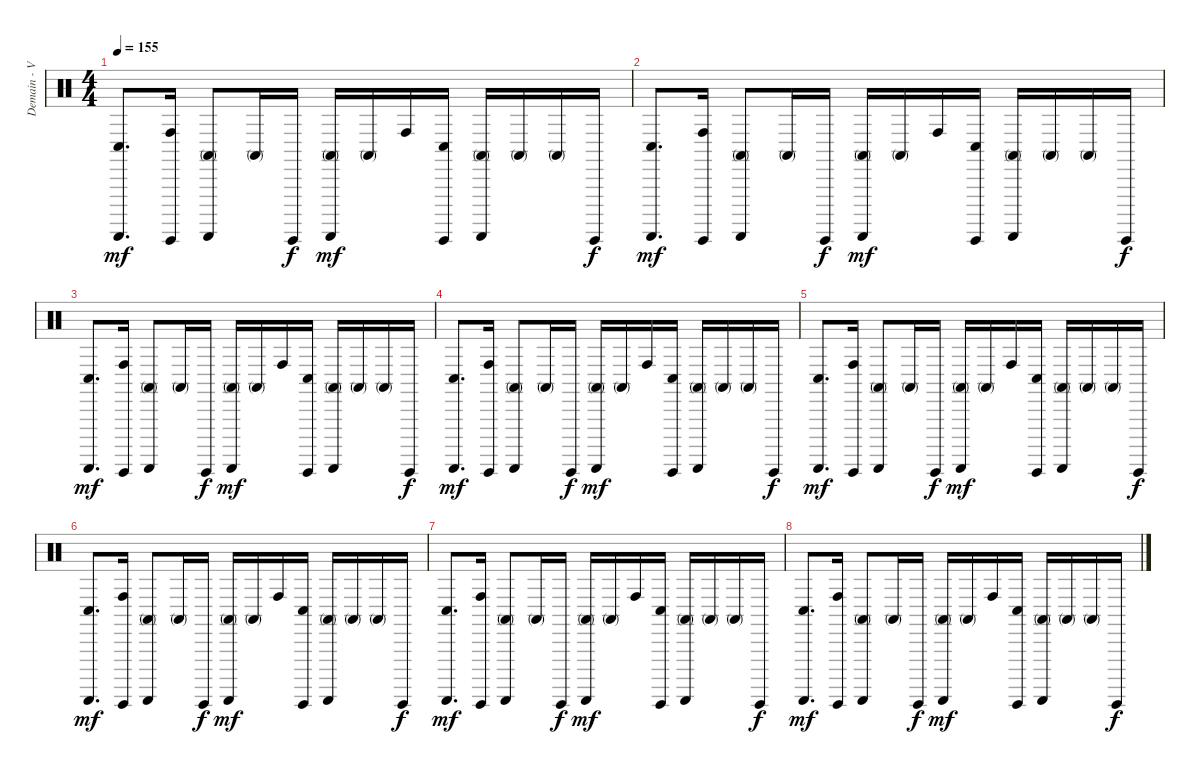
\track ("Demain - Various Perc." "Demain - V") {instrument percussion}
\staff {score}
\articulation defaults
\ts (4 4)
\tempo 155
\clef neutral
\ks c
("Conga low (hit)" "Guiro (scrap-return)").8{d dy mf} ("Conga high (hit)" "Guiro (hit)").16 ("Conga high (mute)" "Guiro (scrap-return)").8 "Conga high (mute)".16 "Guiro (hit)".16{dy f} ("Conga high (mute)" "Guiro (scrap-return)").16{dy mf} "Conga high (mute)".16 "Conga high (hit)".16 ("Conga low (hit)" "Guiro (hit)").16 ("Conga high (mute)" "Guiro (scrap-return)").16 "Conga high (mute)".16 "Conga high (mute)".16 "Guiro (hit)".16{dy f} |
("Conga low (hit)" "Guiro (scrap-return)").8{d dy mf} ("Conga high (hit)" "Guiro (hit)").16 ("Conga high (mute)" "Guiro (scrap-return)").8 "Conga high (mute)".16 "Guiro (hit)".16{dy f} ("Conga high (mute)" "Guiro (scrap-return)").16{dy mf} "Conga high (mute)".16 "Conga high (hit)".16 ("Conga low (hit)" "Guiro (hit)").16 ("Conga high (mute)" "Guiro (scrap-return)").16 "Conga high (mute)".16 "Conga high (mute)".16 "Guiro (hit)".16{dy f} |
("Conga low (hit)" "Guiro (scrap-return)").8{d dy mf} ("Conga high (hit)" "Guiro (hit)").16 ("Conga high (mute)" "Guiro (scrap-return)").8 "Conga high (mute)".16 "Guiro (hit)".16{dy f} ("Conga high (mute)" "Guiro (scrap-return)").16{dy mf} "Conga high (mute)".16 "Conga high (hit)".16 ("Conga low (hit)" "Guiro (hit)").16 ("Conga high (mute)" "Guiro (scrap-return)").16 "Conga high (mute)".16 "Conga high (mute)".16 "Guiro (hit)".16{dy f} |
("Conga low (hit)" "Guiro (scrap-return)").8{d dy mf} ("Conga high (hit)" "Guiro (hit)").16 ("Conga high (mute)" "Guiro (scrap-return)").8 "Conga high (mute)".16 "Guiro (hit)".16{dy f} ("Conga high (mute)" "Guiro (scrap-return)").16{dy mf} "Conga high (mute)".16 "Conga high (hit)".16 ("Conga low (hit)" "Guiro (hit)").16 ("Conga high (mute)" "Guiro (scrap-return)").16 "Conga high (mute)".16 "Conga high (mute)".16 "Guiro (hit)".16{dy f} |
("Conga low (hit)" "Guiro (scrap-return)").8{d dy mf} ("Conga high (hit)" "Guiro (hit)").16 ("Conga high (mute)" "Guiro (scrap-return)").8 "Conga high (mute)".16 "Guiro (hit)".16{dy f} ("Conga high (mute)" "Guiro (scrap-return)").16{dy mf} "Conga high (mute)".16 "Conga high (hit)".16 ("Conga low (hit)" "Guiro (hit)").16 ("Conga high (mute)" "Guiro (scrap-return)").16 "Conga high (mute)".16 "Conga high (mute)".16 "Guiro (hit)".16{dy f} |
("Conga low (hit)" "Guiro (scrap-return)").8{d dy mf} ("Conga high (hit)" "Guiro (hit)").16 ("Conga high (mute)" "Guiro (scrap-return)").8 "Conga high (mute)".16 "Guiro (hit)".16{dy f} ("Conga high (mute)" "Guiro (scrap-return)").16{dy mf} "Conga high (mute)".16 "Conga high (hit)".16 ("Conga low (hit)" "Guiro (hit)").16 ("Conga high (mute)" "Guiro (scrap-return)").16 "Conga high (mute)".16 "Conga high (mute)".16 "Guiro (hit)".16{dy f} |
("Conga low (hit)" "Guiro (scrap-return)").8{d dy mf} ("Conga high (hit)" "Guiro (hit)").16 ("Conga high (mute)" "Guiro (scrap-return)").8 "Conga high (mute)".16 "Guiro (hit)".16{dy f} ("Conga high (mute)" "Guiro (scrap-return)").16{dy mf} "Conga high (mute)".16 "Conga high (hit)".16 ("Conga low (hit)" "Guiro (hit)").16 ("Conga high (mute)" "Guiro (scrap-return)").16 "Conga high (mute)".16 "Conga high (mute)".16 "Guiro (hit)".16{dy f} |
("Conga low (hit)" "Guiro (scrap-return)").8{d dy mf} ("Conga high (hit)" "Guiro (hit)").16 ("Conga high (mute)" "Guiro (scrap-return)").8 "Conga high (mute)".16 "Guiro (hit)".16{dy f} ("Conga high (mute)" "Guiro (scrap-return)").16{dy mf} "Conga high (mute)".16 "Conga high (hit)".16 ("Conga low (hit)" "Guiro (hit)").16 ("Conga high (mute)" "Guiro (scrap-return)").16 "Conga high (mute)".16 "Conga high (mute)".16 "Guiro (hit)".16{dy f}
